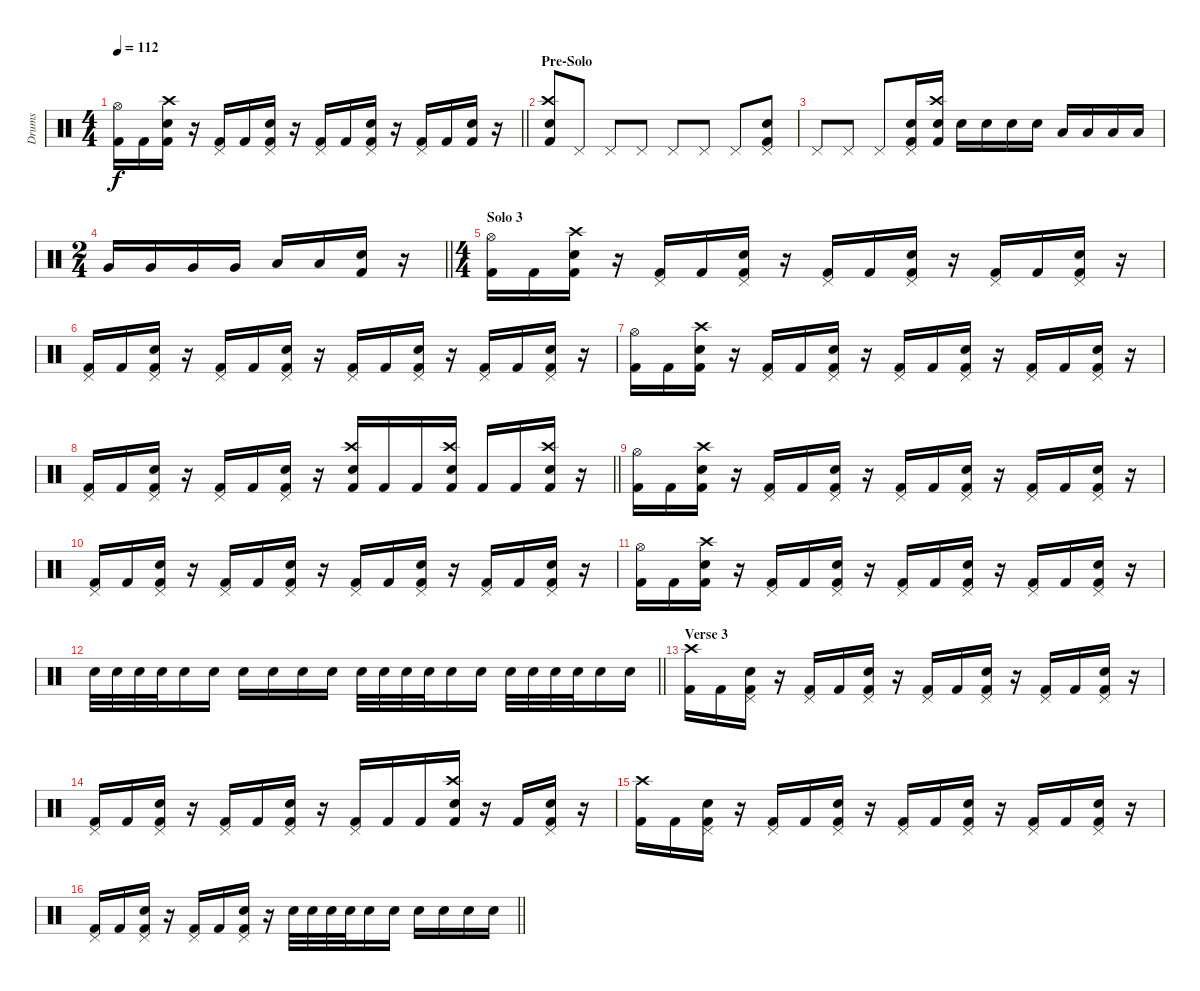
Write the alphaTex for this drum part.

\track ("Drums" "Drums") {instrument percussion}
\staff {score}
\articulation defaults
\ts (4 4)
\tempo 112
\clef neutral
\barLineRight lightlight
\ks c
("Hi-Hat (open)" "Kick (hit) 2").16{dy f} "Kick (hit) 2".16 ("Crash high (hit)" "Snare (hit) 2" "Kick (hit) 2").16 r.16 ("Pedal Hi-Hat (hit)" "Kick (hit) 2").16 "Kick (hit) 2".16 ("Pedal Hi-Hat (hit)" "Snare (hit) 2" "Kick (hit) 2").16 r.16 ("Pedal Hi-Hat (hit)" "Kick (hit) 2").16 "Kick (hit) 2".16 ("Pedal Hi-Hat (hit)" "Snare (hit) 2" "Kick (hit) 2").16 r.16 ("Pedal Hi-Hat (hit)" "Kick (hit) 2").16 "Kick (hit) 2".16 ("Snare (hit) 2" "Kick (hit) 2").16 r.16 |
\section ("" "Pre-Solo")
("Crash high (hit)" "Snare (hit) 2" "Kick (hit) 2").8 "Pedal Hi-Hat (hit)".8 "Pedal Hi-Hat (hit)".8 "Pedal Hi-Hat (hit)".8 "Pedal Hi-Hat (hit)".8 "Pedal Hi-Hat (hit)".8 "Pedal Hi-Hat (hit)".8 ("Pedal Hi-Hat (hit)" "Snare (hit) 2" "Kick (hit) 2").8 |
"Pedal Hi-Hat (hit)".8 "Pedal Hi-Hat (hit)".8 "Pedal Hi-Hat (hit)".8 ("Pedal Hi-Hat (hit)" "Snare (hit) 2" "Kick (hit) 2").16 ("Crash high (hit)" "Snare (hit) 2" "Kick (hit) 2").16 "Snare (hit) 2".16 "Snare (hit) 2".16 "Snare (hit) 2".16 "Snare (hit) 2".16 "Low Tom (hit)".16 "Low Tom (hit)".16 "Low Tom (hit)".16 "Low Tom (hit)".16 |
\ts (2 4)
\barLineRight lightlight "Very Low Tom (hit)".16 "Very Low Tom (hit)".16 "Very Low Tom (hit)".16 "Very Low Tom (hit)".16 "Low Floor Tom (hit)".16 "Low Floor Tom (hit)".16
("Snare (hit) 2" "Kick (hit) 2").16 r.16 |
\ts (4 4)
\section ("" "Solo 3")
("Hi-Hat (open)" "Kick (hit) 2").16 "Kick (hit) 2".16 ("Crash high (hit)" "Snare (hit) 2" "Kick (hit) 2").16 r.16 ("Pedal Hi-Hat (hit)" "Kick (hit) 2").16 "Kick (hit) 2".16 ("Pedal Hi-Hat (hit)" "Snare (hit) 2" "Kick (hit) 2").16 r.16 ("Pedal Hi-Hat (hit)" "Kick (hit) 2").16 "Kick (hit) 2".16 ("Pedal Hi-Hat (hit)" "Snare (hit) 2" "Kick (hit) 2").16 r.16 ("Pedal Hi-Hat (hit)" "Kick (hit) 2").16 "Kick (hit) 2".16 ("Pedal Hi-Hat (hit)" "Snare (hit) 2" "Kick (hit) 2").16 r.16 |
("Pedal Hi-Hat (hit)" "Kick (hit) 2").16 "Kick (hit) 2".16 ("Pedal Hi-Hat (hit)" "Snare (hit) 2" "Kick (hit) 2").16 r.16 ("Pedal Hi-Hat (hit)" "Kick (hit) 2").16 "Kick (hit) 2".16 ("Pedal Hi-Hat (hit)" "Snare (hit) 2" "Kick (hit) 2").16 r.16 ("Pedal Hi-Hat (hit)" "Kick (hit) 2").16 "Kick (hit) 2".16 ("Pedal Hi-Hat (hit)" "Snare (hit) 2" "Kick (hit) 2").16 r.16 ("Pedal Hi-Hat (hit)" "Kick (hit) 2").16 "Kick (hit) 2".16 ("Pedal Hi-Hat (hit)" "Snare (hit) 2" "Kick (hit) 2").16 r.16 |
("Hi-Hat (open)" "Kick (hit) 2").16 "Kick (hit) 2".16 ("Crash high (hit)" "Snare (hit) 2" "Kick (hit) 2").16 r.16 ("Pedal Hi-Hat (hit)" "Kick (hit) 2").16 "Kick (hit) 2".16 ("Pedal Hi-Hat (hit)" "Snare (hit) 2" "Kick (hit) 2").16 r.16 ("Pedal Hi-Hat (hit)" "Kick (hit) 2").16 "Kick (hit) 2".16 ("Pedal Hi-Hat (hit)" "Snare (hit) 2" "Kick (hit) 2").16 r.16 ("Pedal Hi-Hat (hit)" "Kick (hit) 2").16 "Kick (hit) 2".16 ("Pedal Hi-Hat (hit)" "Snare (hit) 2" "Kick (hit) 2").16 r.16 |
\barLineRight lightlight
("Pedal Hi-Hat (hit)" "Kick (hit) 2").16 "Kick (hit) 2".16 ("Pedal Hi-Hat (hit)" "Snare (hit) 2" "Kick (hit) 2").16 r.16 ("Pedal Hi-Hat (hit)" "Kick (hit) 2").16 "Kick (hit) 2".16 ("Pedal Hi-Hat (hit)" "Snare (hit) 2" "Kick (hit) 2").16 r.16 ("Crash high (hit)" "Snare (hit) 2" "Kick (hit) 2").16 "Kick (hit) 2".16 "Kick (hit) 2".16 ("Crash high (hit)" "Snare (hit) 2" "Kick (hit) 2").16 "Kick (hit) 2".16 "Kick (hit) 2".16 ("Crash high (hit)" "Snare (hit) 2" "Kick (hit) 2").16 r.16 |
("Hi-Hat (open)" "Kick (hit) 2").16 "Kick (hit) 2".16 ("Crash high (hit)" "Snare (hit) 2" "Kick (hit) 2").16 r.16 ("Pedal Hi-Hat (hit)" "Kick (hit) 2").16 "Kick (hit) 2".16 ("Pedal Hi-Hat (hit)" "Snare (hit) 2" "Kick (hit) 2").16 r.16 ("Pedal Hi-Hat (hit)" "Kick (hit) 2").16 "Kick (hit) 2".16 ("Pedal Hi-Hat (hit)" "Snare (hit) 2" "Kick (hit) 2").16 r.16 ("Pedal Hi-Hat (hit)" "Kick (hit) 2").16 "Kick (hit) 2".16 ("Pedal Hi-Hat (hit)" "Snare (hit) 2" "Kick (hit) 2").16 r.16 |
("Pedal Hi-Hat (hit)" "Kick (hit) 2").16 "Kick (hit) 2".16 ("Pedal Hi-Hat (hit)" "Snare (hit) 2" "Kick (hit) 2").16 r.16 ("Pedal Hi-Hat (hit)" "Kick (hit) 2").16 "Kick (hit) 2".16 ("Pedal Hi-Hat (hit)" "Snare (hit) 2" "Kick (hit) 2").16 r.16 ("Pedal Hi-Hat (hit)" "Kick (hit) 2").16 "Kick (hit) 2".16 ("Pedal Hi-Hat (hit)" "Snare (hit) 2" "Kick (hit) 2").16 r.16 ("Pedal Hi-Hat (hit)" "Kick (hit) 2").16 "Kick (hit) 2".16 ("Pedal Hi-Hat (hit)" "Snare (hit) 2" "Kick (hit) 2").16 r.16 |
("Hi-Hat (open)" "Kick (hit) 2").16 "Kick (hit) 2".16 ("Crash high (hit)" "Snare (hit) 2" "Kick (hit) 2").16 r.16 ("Pedal Hi-Hat (hit)" "Kick (hit) 2").16 "Kick (hit) 2".16 ("Pedal Hi-Hat (hit)" "Snare (hit) 2" "Kick (hit) 2").16 r.16 ("Pedal Hi-Hat (hit)" "Kick (hit) 2").16 "Kick (hit) 2".16 ("Pedal Hi-Hat (hit)" "Snare (hit) 2" "Kick (hit) 2").16 r.16 ("Pedal Hi-Hat (hit)" "Kick (hit) 2").16 "Kick (hit) 2".16 ("Pedal Hi-Hat (hit)" "Snare (hit) 2" "Kick (hit) 2").16 r.16 |
\barLineRight lightlight "Snare (hit) 2".32 "Snare (hit) 2".32 "Snare (hit) 2".32 "Snare (hit) 2".32 "Snare (hit) 2".16 "Snare (hit) 2".16 "Snare (hit) 2".16 "Snare (hit) 2".16 "Snare (hit) 2".16 "Snare (hit) 2".16 "Snare (hit) 2".32 "Snare (hit) 2".32 "Snare (hit) 2".32 "Snare (hit) 2".32 "Snare (hit) 2".16 "Snare (hit) 2".16 "Snare (hit) 2".32 "Snare (hit) 2".32 "Snare (hit) 2".32 "Snare (hit) 2".32 "Snare (hit) 2".16 "Snare (hit) 2".16
|
\section ("" "Verse 3")
("Crash high (hit)" "Kick (hit) 2").16 "Kick (hit) 2".16 ("Pedal Hi-Hat (hit)" "Snare (hit) 2" "Kick (hit) 2").16 r.16 ("Pedal Hi-Hat (hit)" "Kick (hit) 2").16 "Kick (hit) 2".16 ("Pedal Hi-Hat (hit)" "Snare (hit) 2" "Kick (hit) 2").16 r.16 ("Pedal Hi-Hat (hit)" "Kick (hit) 2").16 "Kick (hit) 2".16 ("Pedal Hi-Hat (hit)" "Snare (hit) 2" "Kick (hit) 2").16 r.16 ("Pedal Hi-Hat (hit)" "Kick (hit) 2").16 "Kick (hit) 2".16 ("Pedal Hi-Hat (hit)" "Snare (hit) 2" "Kick (hit) 2").16 r.16 |
("Pedal Hi-Hat (hit)" "Kick (hit) 2").16 "Kick (hit) 2".16 ("Pedal Hi-Hat (hit)" "Snare (hit) 2" "Kick (hit) 2").16 r.16 ("Pedal Hi-Hat (hit)" "Kick (hit) 2").16 "Kick (hit) 2".16 ("Pedal Hi-Hat (hit)" "Snare (hit) 2" "Kick (hit) 2").16 r.16 ("Pedal Hi-Hat (hit)" "Kick (hit) 2").16 "Kick (hit) 2".16 "Kick (hit) 2".16 ("Crash high (hit)" "Snare (hit) 2" "Kick (hit) 2").16 r.16 "Kick (hit) 2".16 ("Pedal Hi-Hat (hit)" "Snare (hit) 2" "Kick (hit) 2").16 r.16 |
("Crash high (hit)" "Kick (hit) 2").16 "Kick (hit) 2".16 ("Pedal Hi-Hat (hit)" "Snare (hit) 2" "Kick (hit) 2").16 r.16 ("Pedal Hi-Hat (hit)" "Kick (hit) 2").16 "Kick (hit) 2".16 ("Pedal Hi-Hat (hit)" "Snare (hit) 2" "Kick (hit) 2").16 r.16 ("Pedal Hi-Hat (hit)" "Kick (hit) 2").16 "Kick (hit) 2".16 ("Pedal Hi-Hat (hit)" "Snare (hit) 2" "Kick (hit) 2").16 r.16 ("Pedal Hi-Hat (hit)" "Kick (hit) 2").16 "Kick (hit) 2".16 ("Pedal Hi-Hat (hit)" "Snare (hit) 2" "Kick (hit) 2").16 r.16 |
\barLineRight lightlight
("Pedal Hi-Hat (hit)" "Kick (hit) 2").16 "Kick (hit) 2".16 ("Pedal Hi-Hat (hit)" "Snare (hit) 2" "Kick (hit) 2").16 r.16 ("Pedal Hi-Hat (hit)" "Kick (hit) 2").16 "Kick (hit) 2".16 ("Pedal Hi-Hat (hit)" "Snare (hit) 2" "Kick (hit) 2").16 r.16 "Snare (hit) 2".32 "Snare (hit) 2".32 "Snare (hit) 2".32 "Snare (hit) 2".32 "Snare (hit) 2".16 "Snare (hit) 2".16 "Snare (hit) 2".16 "Snare (hit) 2".16 "Snare (hit) 2".16 "Snare (hit) 2".16
